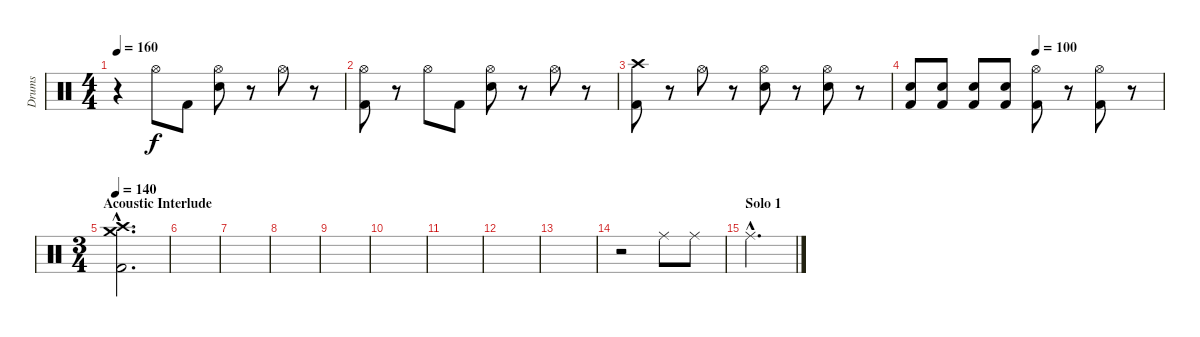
\track ("Drums" "Drums") {instrument percussion}
\staff {score}
\articulation defaults
\ts (4 4)
\tempo 160
\clef neutral
\ks c
r.4{dy f} "Hi-Hat (open)".8 "Kick (hit) 2".8 ("Hi-Hat (open)" "Snare (hit) 2").8 r.8 "Hi-Hat (open)".8 r.8 |
("Hi-Hat (open)" "Kick (hit) 2").8 r.8 "Hi-Hat (open)".8 "Kick (hit) 2".8 ("Hi-Hat (open)" "Snare (hit) 2").8 r.8 "Hi-Hat (open)".8 r.8 |
("Crash high (hit)" "Kick (hit) 2").8 r.8 "Hi-Hat (open)".8 r.8 ("Hi-Hat (open)" "Snare (hit) 2").8 r.8 ("Hi-Hat (open)" "Snare (hit) 2").8 r.8 |
\tempo (100 0.5)
("Snare (hit) 2" "Kick (hit) 2").8 ("Snare (hit) 2" "Kick (hit) 2").8 ("Snare (hit) 2" "Kick (hit) 2").8 ("Snare (hit) 2" "Kick (hit) 2").8 ("Hi-Hat (open)" "Kick (hit) 2").8 r.8 ("Hi-Hat (open)" "Kick (hit) 2").8 r.8 |
\ts (3 4)
\section ("" "Acoustic Interlude")
\tempo 140
("Crash high (hit)"{hac} "Crash medium (hit)"{hac} "Kick (hit) 2"{hac}).2{d} |
|
|
|
|
|
|
|
|
r.2 "Ride (middle)".8 "Ride (middle)".8 |
\section ("" "Solo 1")
"Ride (middle)"{hac}.2{d}
